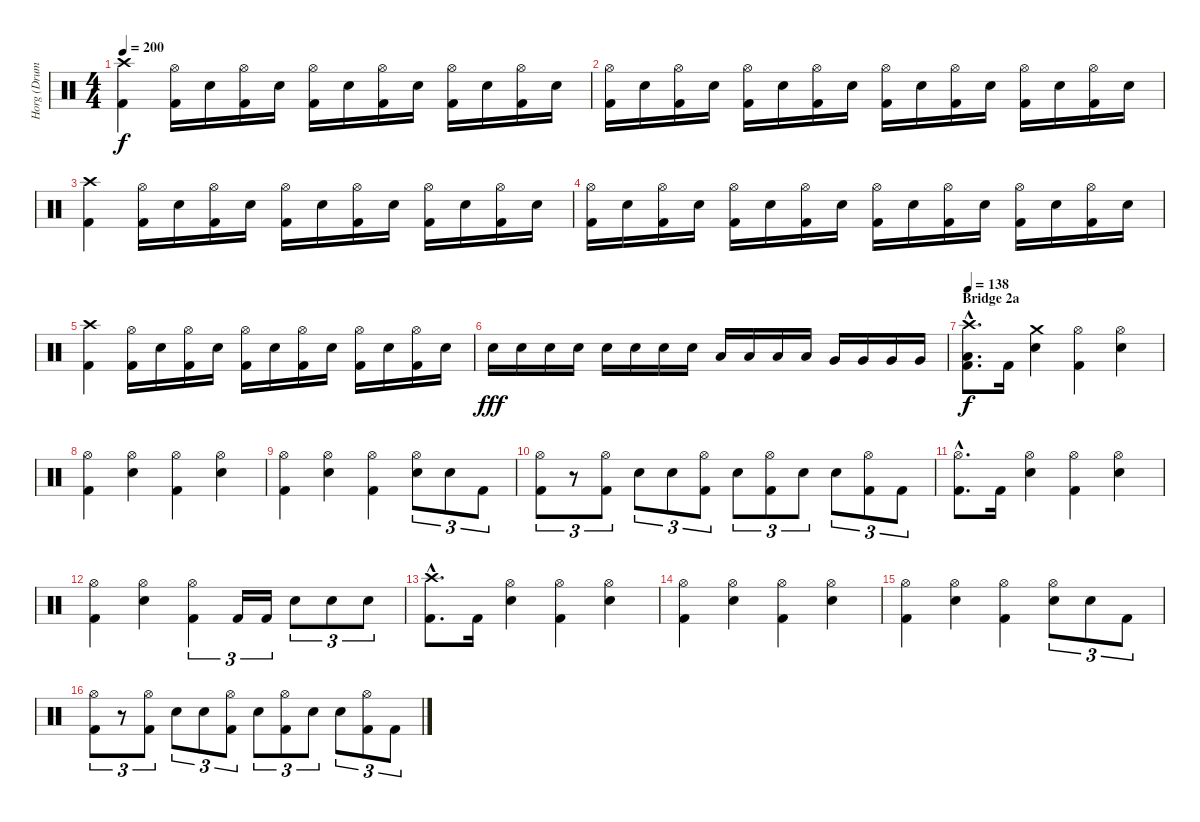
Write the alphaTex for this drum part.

\track ("Horg (Drums)" "Horg (Drum") {instrument percussion}
\staff {score}
\articulation defaults
\ts (4 4)
\tempo 200
\clef neutral
\ks c
("Crash high (hit)" "Kick (hit) 2").4{dy f} ("Hi-Hat (open)" "Kick (hit) 2").16 "Electric Snare (hit)".16 ("Hi-Hat (open)" "Kick (hit) 2").16 "Electric Snare (hit)".16 ("Hi-Hat (open)" "Kick (hit) 2").16 "Electric Snare (hit)".16 ("Hi-Hat (open)" "Kick (hit) 2").16 "Electric Snare (hit)".16 ("Hi-Hat (open)" "Kick (hit) 2").16 "Electric Snare (hit)".16 ("Hi-Hat (open)" "Kick (hit) 2").16 "Electric Snare (hit)".16 |
("Hi-Hat (open)" "Kick (hit) 2").16 "Electric Snare (hit)".16 ("Hi-Hat (open)" "Kick (hit) 2").16 "Electric Snare (hit)".16 ("Hi-Hat (open)" "Kick (hit) 2").16 "Electric Snare (hit)".16 ("Hi-Hat (open)" "Kick (hit) 2").16 "Electric Snare (hit)".16 ("Hi-Hat (open)" "Kick (hit) 2").16 "Electric Snare (hit)".16 ("Hi-Hat (open)" "Kick (hit) 2").16 "Electric Snare (hit)".16 ("Hi-Hat (open)" "Kick (hit) 2").16 "Electric Snare (hit)".16 ("Hi-Hat (open)" "Kick (hit) 2").16 "Electric Snare (hit)".16 |
("Crash high (hit)" "Kick (hit) 2").4 ("Hi-Hat (open)" "Kick (hit) 2").16 "Electric Snare (hit)".16 ("Hi-Hat (open)" "Kick (hit) 2").16 "Electric Snare (hit)".16 ("Hi-Hat (open)" "Kick (hit) 2").16 "Electric Snare (hit)".16 ("Hi-Hat (open)" "Kick (hit) 2").16 "Electric Snare (hit)".16 ("Hi-Hat (open)" "Kick (hit) 2").16 "Electric Snare (hit)".16 ("Hi-Hat (open)" "Kick (hit) 2").16 "Electric Snare (hit)".16 |
("Hi-Hat (open)" "Kick (hit) 2").16 "Electric Snare (hit)".16 ("Hi-Hat (open)" "Kick (hit) 2").16 "Electric Snare (hit)".16 ("Hi-Hat (open)" "Kick (hit) 2").16 "Electric Snare (hit)".16 ("Hi-Hat (open)" "Kick (hit) 2").16 "Electric Snare (hit)".16 ("Hi-Hat (open)" "Kick (hit) 2").16 "Electric Snare (hit)".16 ("Hi-Hat (open)" "Kick (hit) 2").16 "Electric Snare (hit)".16 ("Hi-Hat (open)" "Kick (hit) 2").16 "Electric Snare (hit)".16 ("Hi-Hat (open)" "Kick (hit) 2").16 "Electric Snare (hit)".16 |
("Crash high (hit)" "Kick (hit) 2").4 ("Hi-Hat (open)" "Kick (hit) 2").16 "Electric Snare (hit)".16 ("Hi-Hat (open)" "Kick (hit) 2").16 "Electric Snare (hit)".16 ("Hi-Hat (open)" "Kick (hit) 2").16 "Electric Snare (hit)".16 ("Hi-Hat (open)" "Kick (hit) 2").16 "Electric Snare (hit)".16 ("Hi-Hat (open)" "Kick (hit) 2").16 "Electric Snare (hit)".16 ("Hi-Hat (open)" "Kick (hit) 2").16 "Electric Snare (hit)".16 |
"Electric Snare (hit)".16{dy fff} "Electric Snare (hit)".16 "Electric Snare (hit)".16 "Electric Snare (hit)".16 "Electric Snare (hit)".16 "Electric Snare (hit)".16 "Electric Snare (hit)".16 "Electric Snare (hit)".16 "Low Tom (hit)".16 "Low Tom (hit)".16 "Low Tom (hit)".16 "Low Tom (hit)".16 "Very Low Tom (hit)".16 "Very Low Tom (hit)".16 "Very Low Tom (hit)".16 "Very Low Tom (hit)".16 |
\section ("" "Bridge 2a")
\tempo 138
("Crash high (hit)"{hac} "Low Floor Tom (hit)"{hac} "Kick (hit) 2"{hac}).8{d dy f} "Kick (hit) 2".16 ("Crash medium (hit)" "Electric Snare (hit)").4 ("Hi-Hat (open)" "Kick (hit) 2").4 ("Hi-Hat (open)" "Electric Snare (hit)").4 |
("Hi-Hat (open)" "Kick (hit) 2").4 ("Hi-Hat (open)" "Electric Snare (hit)").4 ("Hi-Hat (open)" "Kick (hit) 2").4 ("Hi-Hat (open)" "Electric Snare (hit)").4 |
("Hi-Hat (open)" "Kick (hit) 2").4 ("Hi-Hat (open)" "Electric Snare (hit)").4 ("Hi-Hat (open)" "Kick (hit) 2").4 ("Hi-Hat (open)" "Electric Snare (hit)").8{tu (3 2)} "Electric Snare (hit)".8{tu (3 2)} "Kick (hit) 2".8{tu (3 2)} |
("Hi-Hat (open)" "Kick (hit) 2").8{tu (3 2)} r.8{tu (3 2)} ("Hi-Hat (open)" "Kick (hit) 2").8{tu (3 2)} "Electric Snare (hit)".8{tu (3 2)} "Electric Snare (hit)".8{tu (3 2)} ("Hi-Hat (open)" "Kick (hit) 2").8{tu (3 2)} "Electric Snare (hit)".8{tu (3 2)} ("Hi-Hat (open)" "Kick (hit) 2").8{tu (3 2)} "Electric Snare (hit)".8{tu (3 2)} "Electric Snare (hit)".8{tu (3 2)} ("Hi-Hat (open)" "Kick (hit) 2").8{tu (3 2)} "Kick (hit) 2".8{tu (3 2)} |
("Hi-Hat (open)"{hac} "Kick (hit) 2"{hac}).8{d} "Kick (hit) 2".16 ("Hi-Hat (open)" "Electric Snare (hit)").4 ("Hi-Hat (open)" "Kick (hit) 2").4 ("Hi-Hat (open)" "Electric Snare (hit)").4 |
("Hi-Hat (open)" "Kick (hit) 2").4 ("Hi-Hat (open)" "Electric Snare (hit)").4 ("Hi-Hat (open)" "Kick (hit) 2").4{tu (3 2)} "Kick (hit) 2".16{tu (3 2)} "Kick (hit) 2".16{tu (3 2)} "Electric Snare (hit)".8{tu (3 2)} "Electric Snare (hit)".8{tu (3 2)} "Electric Snare (hit)".8{tu (3 2)} |
("Crash high (hit)"{hac} "Kick (hit) 2"{hac}).8{d} "Kick (hit) 2".16 ("Hi-Hat (open)" "Electric Snare (hit)").4 ("Hi-Hat (open)" "Kick (hit) 2").4 ("Hi-Hat (open)" "Electric Snare (hit)").4 |
("Hi-Hat (open)" "Kick (hit) 2").4 ("Hi-Hat (open)" "Electric Snare (hit)").4 ("Hi-Hat (open)" "Kick (hit) 2").4 ("Hi-Hat (open)" "Electric Snare (hit)").4 |
("Hi-Hat (open)" "Kick (hit) 2").4 ("Hi-Hat (open)" "Electric Snare (hit)").4 ("Hi-Hat (open)" "Kick (hit) 2").4 ("Hi-Hat (open)" "Electric Snare (hit)").8{tu (3 2)} "Electric Snare (hit)".8{tu (3 2)} "Kick (hit) 2".8{tu (3 2)} |
("Hi-Hat (open)" "Kick (hit) 2").8{tu (3 2)} r.8{tu (3 2)} ("Hi-Hat (open)" "Kick (hit) 2").8{tu (3 2)} "Electric Snare (hit)".8{tu (3 2)} "Electric Snare (hit)".8{tu (3 2)} ("Hi-Hat (open)" "Kick (hit) 2").8{tu (3 2)} "Electric Snare (hit)".8{tu (3 2)} ("Hi-Hat (open)" "Kick (hit) 2").8{tu (3 2)} "Electric Snare (hit)".8{tu (3 2)} "Electric Snare (hit)".8{tu (3 2)} ("Hi-Hat (open)" "Kick (hit) 2").8{tu (3 2)} "Kick (hit) 2".8{tu (3 2)}
